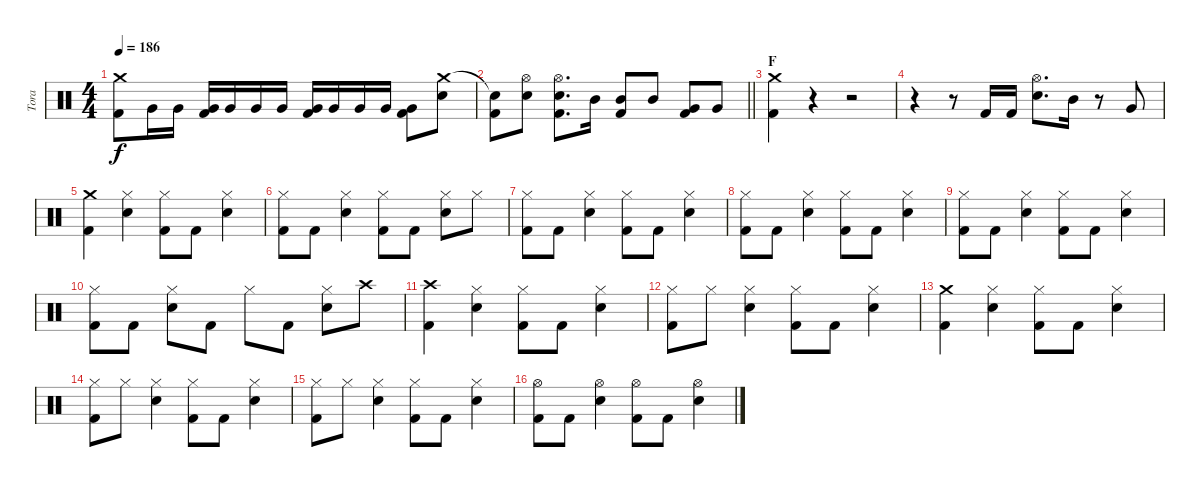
\track ("Tora" "Tora") {instrument percussion}
\staff {score}
\articulation defaults
\ts (4 4)
\tempo 186
\clef neutral
\ks c
("Crash medium (hit)" "Kick (hit) 2").8{dy f} "Very Low Tom (hit)".16 "Very Low Tom (hit)".16 ("Very Low Tom (hit)" "Kick (hit) 2").16 "Very Low Tom (hit)".16 "Very Low Tom (hit)".16 "Very Low Tom (hit)".16 ("Very Low Tom (hit)" "Kick (hit) 2").16 "Very Low Tom (hit)".16 "Very Low Tom (hit)".16 "Very Low Tom (hit)".16 ("Very Low Tom (hit)" "Kick (hit) 2").8 ("Crash medium (hit)" "Electric Snare (hit)").8 |
\barLineRight lightlight
("Snare (hit)"{t} "Kick (hit) 2").8 ("Hi-Hat (open)" "Electric Snare (hit)").8 ("Hi-Hat (open)" "Electric Snare (hit)" "Kick (hit) 2").8{d} "Mid Tom (hit)".16 ("Mid Tom (hit)" "Kick (hit) 2").8 "Mid Tom (hit)".8 ("Very Low Tom (hit)" "Kick (hit) 2").8 "Very Low Tom (hit)".8 |
\section ("" "F")
("Crash medium (hit)" "Kick (hit) 2").4 r.4 r.2 |
r.4 r.8 "Kick (hit) 2".16 "Kick (hit) 2".16 ("Hi-Hat (open)" "Electric Snare (hit)").8{d} "Mid Tom (hit)".16 r.8 "Very Low Tom (hit)".8 |
("Crash medium (hit)" "Kick (hit) 2").4 ("Hi-Hat (closed)" "Electric Snare (hit)").4 ("Hi-Hat (closed)" "Kick (hit) 2").8 "Kick (hit) 2".8 ("Hi-Hat (closed)" "Electric Snare (hit)").4 |
("Hi-Hat (closed)" "Kick (hit) 2").8 "Kick (hit) 2".8 ("Hi-Hat (closed)" "Electric Snare (hit)").4 ("Hi-Hat (closed)" "Kick (hit) 2").8 "Kick (hit) 2".8 ("Hi-Hat (closed)" "Electric Snare (hit)").8 "Hi-Hat (closed)".8 |
("Hi-Hat (closed)" "Kick (hit) 2").8 "Kick (hit) 2".8 ("Hi-Hat (closed)" "Electric Snare (hit)").4 ("Hi-Hat (closed)" "Kick (hit) 2").8 "Kick (hit) 2".8 ("Hi-Hat (closed)" "Electric Snare (hit)").4 |
("Hi-Hat (closed)" "Kick (hit) 2").8 "Kick (hit) 2".8 ("Hi-Hat (closed)" "Electric Snare (hit)").4 ("Hi-Hat (closed)" "Kick (hit) 2").8 "Kick (hit) 2".8 ("Hi-Hat (closed)" "Electric Snare (hit)").4 |
("Hi-Hat (closed)" "Kick (hit) 2").8 "Kick (hit) 2".8 ("Hi-Hat (closed)" "Electric Snare (hit)").4 ("Hi-Hat (closed)" "Kick (hit) 2").8 "Kick (hit) 2".8 ("Hi-Hat (closed)" "Electric Snare (hit)").4 |
("Hi-Hat (closed)" "Kick (hit) 2").8 "Kick (hit) 2".8 ("Hi-Hat (closed)" "Electric Snare (hit)").8 "Kick (hit) 2".8 "Hi-Hat (closed)".8 "Kick (hit) 2".8 ("Hi-Hat (closed)" "Electric Snare (hit)").8 "Crash high (hit)".8 |
("Crash high (hit)" "Kick (hit) 2").4 ("Hi-Hat (closed)" "Electric Snare (hit)").4 ("Hi-Hat (closed)" "Kick (hit) 2").8 "Kick (hit) 2".8 ("Hi-Hat (closed)" "Electric Snare (hit)").4 |
("Hi-Hat (closed)" "Kick (hit) 2").8 "Hi-Hat (closed)".8 ("Hi-Hat (closed)" "Electric Snare (hit)").4 ("Hi-Hat (closed)" "Kick (hit) 2").8 "Kick (hit) 2".8 ("Hi-Hat (closed)" "Electric Snare (hit)").4 |
("Crash medium (hit)" "Kick (hit) 2").4 ("Hi-Hat (closed)" "Electric Snare (hit)").4 ("Hi-Hat (closed)" "Kick (hit) 2").8 "Kick (hit) 2".8 ("Hi-Hat (closed)" "Electric Snare (hit)").4 |
("Hi-Hat (closed)" "Kick (hit) 2").8 "Hi-Hat (closed)".8 ("Hi-Hat (closed)" "Electric Snare (hit)").4 ("Hi-Hat (closed)" "Kick (hit) 2").8 "Kick (hit) 2".8 ("Hi-Hat (closed)" "Electric Snare (hit)").4 |
("Hi-Hat (closed)" "Kick (hit) 2").8 "Hi-Hat (closed)".8 ("Hi-Hat (closed)" "Electric Snare (hit)").4 ("Hi-Hat (closed)" "Kick (hit) 2").8 "Kick (hit) 2".8 ("Hi-Hat (closed)" "Electric Snare (hit)").4 |
("Hi-Hat (open)" "Kick (hit) 2").8 "Kick (hit) 2".8 ("Hi-Hat (open)" "Electric Snare (hit)").4 ("Hi-Hat (open)" "Kick (hit) 2").8 "Kick (hit) 2".8 ("Hi-Hat (open)" "Electric Snare (hit)").4
